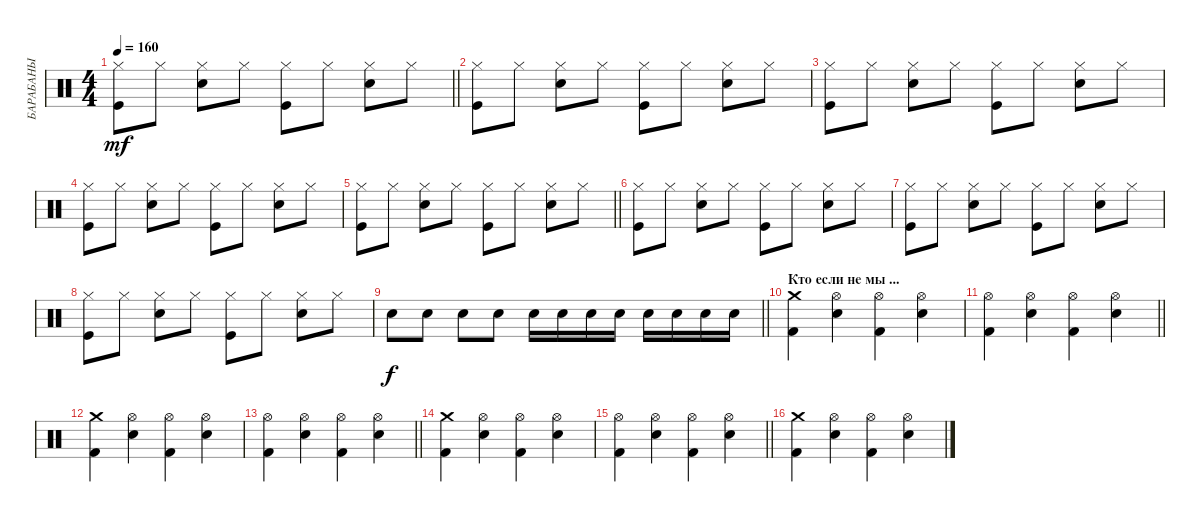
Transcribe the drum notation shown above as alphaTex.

\track ("БАРАБАНЫ" "БАРАБАНЫ") {instrument percussion}
\staff {score}
\articulation defaults
\ts (4 4)
\tempo 160
\clef neutral
\barLineRight lightlight
\ks c
("Hi-Hat (closed)" "Kick (hit)").8{dy mf} "Hi-Hat (closed)".8 ("Hi-Hat (closed)" "Electric Snare (hit)").8 "Hi-Hat (closed)".8 ("Hi-Hat (closed)" "Kick (hit)").8 "Hi-Hat (closed)".8 ("Hi-Hat (closed)" "Electric Snare (hit)").8 "Hi-Hat (closed)".8 |
("Hi-Hat (closed)" "Kick (hit)").8 "Hi-Hat (closed)".8 ("Hi-Hat (closed)" "Electric Snare (hit)").8 "Hi-Hat (closed)".8 ("Hi-Hat (closed)" "Kick (hit)").8 "Hi-Hat (closed)".8 ("Hi-Hat (closed)" "Electric Snare (hit)").8 "Hi-Hat (closed)".8 |
("Hi-Hat (closed)" "Kick (hit)").8 "Hi-Hat (closed)".8 ("Hi-Hat (closed)" "Electric Snare (hit)").8 "Hi-Hat (closed)".8 ("Hi-Hat (closed)" "Kick (hit)").8 "Hi-Hat (closed)".8 ("Hi-Hat (closed)" "Electric Snare (hit)").8 "Hi-Hat (closed)".8 |
("Hi-Hat (closed)" "Kick (hit)").8 "Hi-Hat (closed)".8 ("Hi-Hat (closed)" "Electric Snare (hit)").8 "Hi-Hat (closed)".8 ("Hi-Hat (closed)" "Kick (hit)").8 "Hi-Hat (closed)".8 ("Hi-Hat (closed)" "Electric Snare (hit)").8 "Hi-Hat (closed)".8 |
\barLineRight lightlight
("Hi-Hat (closed)" "Kick (hit)").8 "Hi-Hat (closed)".8 ("Hi-Hat (closed)" "Electric Snare (hit)").8 "Hi-Hat (closed)".8 ("Hi-Hat (closed)" "Kick (hit)").8 "Hi-Hat (closed)".8 ("Hi-Hat (closed)" "Electric Snare (hit)").8 "Hi-Hat (closed)".8 |
("Hi-Hat (closed)" "Kick (hit)").8 "Hi-Hat (closed)".8 ("Hi-Hat (closed)" "Electric Snare (hit)").8 "Hi-Hat (closed)".8 ("Hi-Hat (closed)" "Kick (hit)").8 "Hi-Hat (closed)".8 ("Hi-Hat (closed)" "Electric Snare (hit)").8 "Hi-Hat (closed)".8 |
("Hi-Hat (closed)" "Kick (hit)").8 "Hi-Hat (closed)".8 ("Hi-Hat (closed)" "Electric Snare (hit)").8 "Hi-Hat (closed)".8 ("Hi-Hat (closed)" "Kick (hit)").8 "Hi-Hat (closed)".8 ("Hi-Hat (closed)" "Electric Snare (hit)").8 "Hi-Hat (closed)".8 |
("Hi-Hat (closed)" "Kick (hit)").8 "Hi-Hat (closed)".8 ("Hi-Hat (closed)" "Electric Snare (hit)").8 "Hi-Hat (closed)".8 ("Hi-Hat (closed)" "Kick (hit)").8 "Hi-Hat (closed)".8 ("Hi-Hat (closed)" "Electric Snare (hit)").8 "Hi-Hat (closed)".8 |
\barLineRight lightlight "Snare (hit) 2".8{dy f} "Snare (hit) 2".8 "Snare (hit) 2".8 "Snare (hit) 2".8 "Snare (hit) 2".16 "Snare (hit) 2".16 "Snare (hit) 2".16 "Snare (hit) 2".16 "Snare (hit) 2".16 "Snare (hit) 2".16 "Snare (hit) 2".16 "Snare (hit) 2".16
|
\section ("" "Кто если не мы ...")
("Crash medium (hit)" "Kick (hit) 2").4 ("Hi-Hat (open)" "Snare (hit) 2").4 ("Hi-Hat (open)" "Kick (hit) 2").4 ("Hi-Hat (open)" "Snare (hit) 2").4 |
\barLineRight lightlight
("Hi-Hat (open)" "Kick (hit) 2").4 ("Hi-Hat (open)" "Snare (hit) 2").4 ("Hi-Hat (open)" "Kick (hit) 2").4 ("Hi-Hat (open)" "Snare (hit) 2").4 |
("Crash medium (hit)" "Kick (hit) 2").4 ("Hi-Hat (open)" "Snare (hit) 2").4 ("Hi-Hat (open)" "Kick (hit) 2").4 ("Hi-Hat (open)" "Snare (hit) 2").4 |
\barLineRight lightlight
("Hi-Hat (open)" "Kick (hit) 2").4 ("Hi-Hat (open)" "Snare (hit) 2").4 ("Hi-Hat (open)" "Kick (hit) 2").4 ("Hi-Hat (open)" "Snare (hit) 2").4 |
("Crash medium (hit)" "Kick (hit) 2").4 ("Hi-Hat (open)" "Snare (hit) 2").4 ("Hi-Hat (open)" "Kick (hit) 2").4 ("Hi-Hat (open)" "Snare (hit) 2").4 |
\barLineRight lightlight
("Hi-Hat (open)" "Kick (hit) 2").4 ("Hi-Hat (open)" "Snare (hit) 2").4 ("Hi-Hat (open)" "Kick (hit) 2").4 ("Hi-Hat (open)" "Snare (hit) 2").4 |
("Crash medium (hit)" "Kick (hit) 2").4 ("Hi-Hat (open)" "Snare (hit) 2").4 ("Hi-Hat (open)" "Kick (hit) 2").4 ("Hi-Hat (open)" "Snare (hit) 2").4
